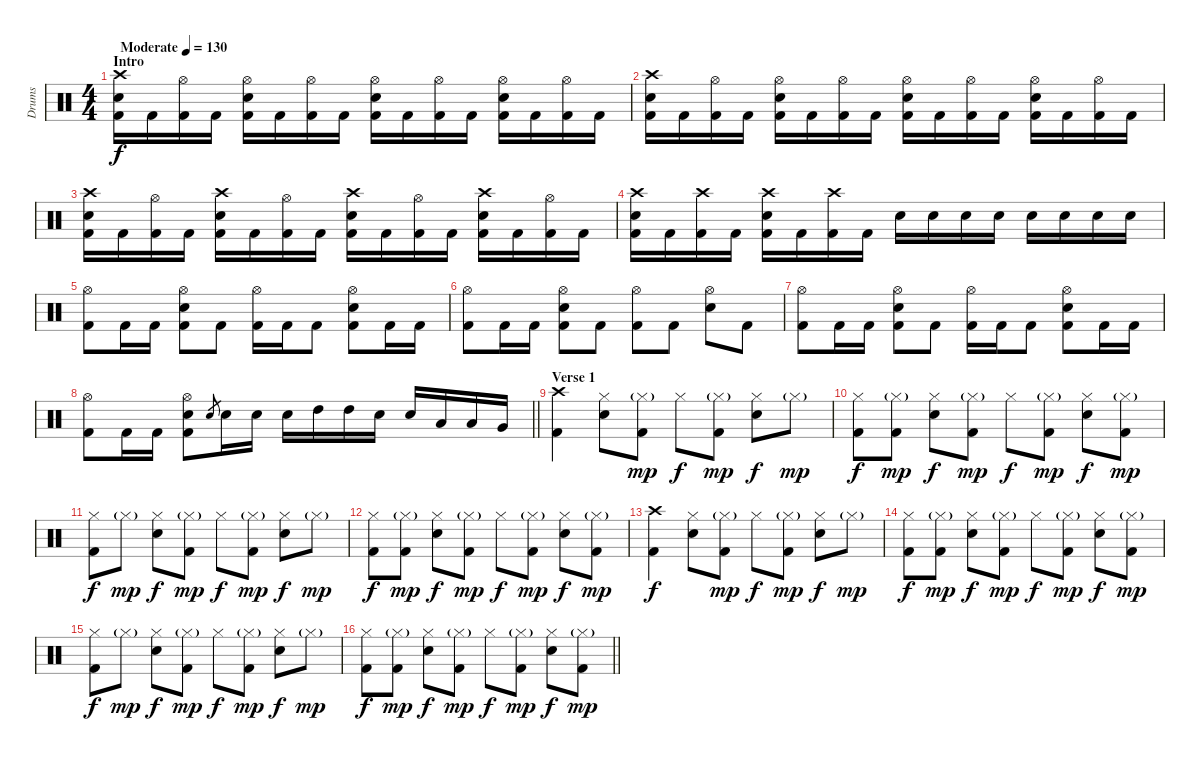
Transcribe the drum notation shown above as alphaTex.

\track ("Drums" "Drums") {instrument percussion}
\staff {score}
\articulation defaults
\ts (4 4)
\section ("" "Intro")
\tempo (130 "Moderate")
\clef neutral
\ks c
("Crash high (hit)" "Snare (hit) 2" "Kick (hit) 2").16{dy f} "Kick (hit) 2".16 ("Hi-Hat (open)" "Kick (hit) 2").16 "Kick (hit) 2".16 ("Hi-Hat (open)" "Snare (hit) 2" "Kick (hit) 2").16 "Kick (hit) 2".16 ("Hi-Hat (open)" "Kick (hit) 2").16 "Kick (hit) 2".16 ("Hi-Hat (open)" "Snare (hit) 2" "Kick (hit) 2").16 "Kick (hit) 2".16 ("Hi-Hat (open)" "Kick (hit) 2").16 "Kick (hit) 2".16 ("Hi-Hat (open)" "Snare (hit) 2" "Kick (hit) 2").16 "Kick (hit) 2".16 ("Hi-Hat (open)" "Kick (hit) 2").16 "Kick (hit) 2".16 |
("Crash high (hit)" "Snare (hit) 2" "Kick (hit) 2").16 "Kick (hit) 2".16 ("Hi-Hat (open)" "Kick (hit) 2").16 "Kick (hit) 2".16 ("Hi-Hat (open)" "Snare (hit) 2" "Kick (hit) 2").16 "Kick (hit) 2".16 ("Hi-Hat (open)" "Kick (hit) 2").16 "Kick (hit) 2".16 ("Hi-Hat (open)" "Snare (hit) 2" "Kick (hit) 2").16 "Kick (hit) 2".16 ("Hi-Hat (open)" "Kick (hit) 2").16 "Kick (hit) 2".16 ("Hi-Hat (open)" "Snare (hit) 2" "Kick (hit) 2").16 "Kick (hit) 2".16 ("Hi-Hat (open)" "Kick (hit) 2").16 "Kick (hit) 2".16 |
("Crash high (hit)" "Snare (hit) 2" "Kick (hit) 2").16 "Kick (hit) 2".16 ("Hi-Hat (open)" "Kick (hit) 2").16 "Kick (hit) 2".16 ("Crash high (hit)" "Snare (hit) 2" "Kick (hit) 2").16 "Kick (hit) 2".16 ("Hi-Hat (open)" "Kick (hit) 2").16 "Kick (hit) 2".16 ("Crash high (hit)" "Snare (hit) 2" "Kick (hit) 2").16 "Kick (hit) 2".16 ("Hi-Hat (open)" "Kick (hit) 2").16 "Kick (hit) 2".16 ("Crash high (hit)" "Snare (hit) 2" "Kick (hit) 2").16 "Kick (hit) 2".16 ("Hi-Hat (open)" "Kick (hit) 2").16 "Kick (hit) 2".16 |
("Crash high (hit)" "Snare (hit) 2" "Kick (hit) 2").16 "Kick (hit) 2".16 ("Crash high (hit)" "Kick (hit) 2").16 "Kick (hit) 2".16 ("Crash high (hit)" "Snare (hit) 2" "Kick (hit) 2").16 "Kick (hit) 2".16 ("Crash high (hit)" "Kick (hit) 2").16 "Kick (hit) 2".16 "Snare (hit) 2".16 "Snare (hit) 2".16 "Snare (hit) 2".16 "Snare (hit) 2".16 "Snare (hit) 2".16 "Snare (hit) 2".16 "Snare (hit) 2".16 "Snare (hit) 2".16 |
("Hi-Hat (open)" "Kick (hit) 2").8 "Kick (hit) 2".16 "Kick (hit) 2".16 ("Hi-Hat (open)" "Snare (hit) 2" "Kick (hit) 2").8 "Kick (hit) 2".8 ("Hi-Hat (open)" "Kick (hit) 2").16 "Kick (hit) 2".16 "Kick (hit) 2".8 ("Hi-Hat (open)" "Snare (hit) 2" "Kick (hit) 2").8 "Kick (hit) 2".16 "Kick (hit) 2".16 |
("Hi-Hat (open)" "Kick (hit) 2").8 "Kick (hit) 2".16 "Kick (hit) 2".16 ("Hi-Hat (open)" "Snare (hit) 2" "Kick (hit) 2").8 "Kick (hit) 2".8 ("Hi-Hat (open)" "Kick (hit) 2").8 "Kick (hit) 2".8 ("Hi-Hat (open)" "Snare (hit) 2").8 "Kick (hit) 2".8 |
("Hi-Hat (open)" "Kick (hit) 2").8 "Kick (hit) 2".16 "Kick (hit) 2".16 ("Hi-Hat (open)" "Snare (hit) 2" "Kick (hit) 2").8 "Kick (hit) 2".8 ("Hi-Hat (open)" "Kick (hit) 2").16 "Kick (hit) 2".16 "Kick (hit) 2".8 ("Hi-Hat (open)" "Snare (hit) 2" "Kick (hit) 2").8 "Kick (hit) 2".16 "Kick (hit) 2".16 |
\barLineRight lightlight
("Hi-Hat (open)" "Kick (hit) 2").8 "Kick (hit) 2".16 "Kick (hit) 2".16 ("Hi-Hat (open)" "Snare (hit) 2" "Kick (hit) 2").8 "Snare (hit) 2".8{gr} "Snare (hit) 2".16 "Snare (hit) 2".16 "Snare (hit) 2".16 "High Tom (hit)".16 "High Tom (hit)".16 "Snare (hit) 2".16 "Snare (hit) 2".16 "Low Tom (hit)".16 "Low Tom (hit)".16 "Very Low Tom (hit)".16 |
\section ("" "Verse 1")
("Crash high (hit)" "Kick (hit) 2").4 ("Hi-Hat (closed)" "Snare (hit) 2").8 ("Hi-Hat (closed)"{g} "Kick (hit) 2").8{dy mp} "Hi-Hat (closed)".8{dy f} ("Hi-Hat (closed)"{g} "Kick (hit) 2").8{dy mp} ("Hi-Hat (closed)" "Snare (hit) 2").8{dy f} "Hi-Hat (closed)"{g}.8{dy mp} |
("Hi-Hat (closed)" "Kick (hit) 2").8{dy f} ("Hi-Hat (closed)"{g} "Kick (hit) 2").8{dy mp} ("Hi-Hat (closed)" "Snare (hit) 2").8{dy f} ("Hi-Hat (closed)"{g} "Kick (hit) 2").8{dy mp} "Hi-Hat (closed)".8{dy f} ("Hi-Hat (closed)"{g} "Kick (hit) 2").8{dy mp} ("Hi-Hat (closed)" "Snare (hit) 2").8{dy f} ("Hi-Hat (closed)"{g} "Kick (hit) 2").8{dy mp} |
("Hi-Hat (closed)" "Kick (hit) 2").8{dy f} "Hi-Hat (closed)"{g}.8{dy mp} ("Hi-Hat (closed)" "Snare (hit) 2").8{dy f} ("Hi-Hat (closed)"{g} "Kick (hit) 2").8{dy mp} "Hi-Hat (closed)".8{dy f} ("Hi-Hat (closed)"{g} "Kick (hit) 2").8{dy mp} ("Hi-Hat (closed)" "Snare (hit) 2").8{dy f} "Hi-Hat (closed)"{g}.8{dy mp} |
("Hi-Hat (closed)" "Kick (hit) 2").8{dy f} ("Hi-Hat (closed)"{g} "Kick (hit) 2").8{dy mp} ("Hi-Hat (closed)" "Snare (hit) 2").8{dy f} ("Hi-Hat (closed)"{g} "Kick (hit) 2").8{dy mp} "Hi-Hat (closed)".8{dy f} ("Hi-Hat (closed)"{g} "Kick (hit) 2").8{dy mp} ("Hi-Hat (closed)" "Snare (hit) 2").8{dy f} ("Hi-Hat (closed)"{g} "Kick (hit) 2").8{dy mp} |
("Crash high (hit)" "Kick (hit) 2").4{dy f} ("Hi-Hat (closed)" "Snare (hit) 2").8 ("Hi-Hat (closed)"{g} "Kick (hit) 2").8{dy mp} "Hi-Hat (closed)".8{dy f} ("Hi-Hat (closed)"{g} "Kick (hit) 2").8{dy mp} ("Hi-Hat (closed)" "Snare (hit) 2").8{dy f} "Hi-Hat (closed)"{g}.8{dy mp} |
("Hi-Hat (closed)" "Kick (hit) 2").8{dy f} ("Hi-Hat (closed)"{g} "Kick (hit) 2").8{dy mp} ("Hi-Hat (closed)" "Snare (hit) 2").8{dy f} ("Hi-Hat (closed)"{g} "Kick (hit) 2").8{dy mp} "Hi-Hat (closed)".8{dy f} ("Hi-Hat (closed)"{g} "Kick (hit) 2").8{dy mp} ("Hi-Hat (closed)" "Snare (hit) 2").8{dy f} ("Hi-Hat (closed)"{g} "Kick (hit) 2").8{dy mp} |
("Hi-Hat (closed)" "Kick (hit) 2").8{dy f} "Hi-Hat (closed)"{g}.8{dy mp} ("Hi-Hat (closed)" "Snare (hit) 2").8{dy f} ("Hi-Hat (closed)"{g} "Kick (hit) 2").8{dy mp} "Hi-Hat (closed)".8{dy f} ("Hi-Hat (closed)"{g} "Kick (hit) 2").8{dy mp} ("Hi-Hat (closed)" "Snare (hit) 2").8{dy f} "Hi-Hat (closed)"{g}.8{dy mp} |
\barLineRight lightlight
("Hi-Hat (closed)" "Kick (hit) 2").8{dy f} ("Hi-Hat (closed)"{g} "Kick (hit) 2").8{dy mp} ("Hi-Hat (closed)" "Snare (hit) 2").8{dy f} ("Hi-Hat (closed)"{g} "Kick (hit) 2").8{dy mp} "Hi-Hat (closed)".8{dy f} ("Hi-Hat (closed)"{g} "Kick (hit) 2").8{dy mp} ("Hi-Hat (closed)" "Snare (hit) 2").8{dy f} ("Hi-Hat (closed)"{g} "Kick (hit) 2").8{dy mp}
